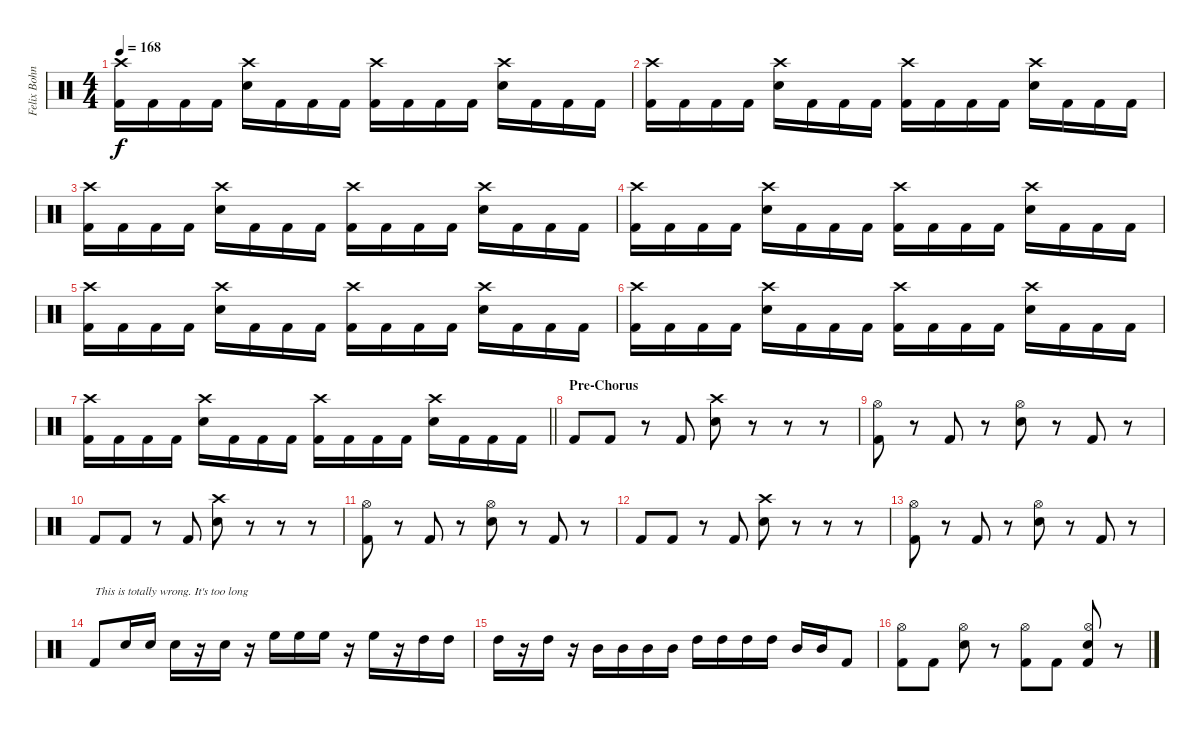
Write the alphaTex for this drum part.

\track ("Felix Bohnke" "Felix Bohn") {instrument percussion}
\staff {score}
\articulation defaults
\ts (4 4)
\tempo 168
\clef neutral
\ks c
("Crash high (hit)" "Kick (hit) 2").16{dy f} "Kick (hit) 2".16 "Kick (hit) 2".16 "Kick (hit) 2".16 ("Crash high (hit)" "Electric Snare (hit)").16 "Kick (hit) 2".16 "Kick (hit) 2".16 "Kick (hit) 2".16 ("Crash high (hit)" "Kick (hit) 2").16 "Kick (hit) 2".16 "Kick (hit) 2".16 "Kick (hit) 2".16 ("Crash high (hit)" "Electric Snare (hit)").16 "Kick (hit) 2".16 "Kick (hit) 2".16 "Kick (hit) 2".16 |
("Crash high (hit)" "Kick (hit) 2").16 "Kick (hit) 2".16 "Kick (hit) 2".16 "Kick (hit) 2".16 ("Crash high (hit)" "Electric Snare (hit)").16 "Kick (hit) 2".16 "Kick (hit) 2".16 "Kick (hit) 2".16 ("Crash high (hit)" "Kick (hit) 2").16 "Kick (hit) 2".16 "Kick (hit) 2".16 "Kick (hit) 2".16 ("Crash high (hit)" "Electric Snare (hit)").16 "Kick (hit) 2".16 "Kick (hit) 2".16 "Kick (hit) 2".16 |
("Crash high (hit)" "Kick (hit) 2").16 "Kick (hit) 2".16 "Kick (hit) 2".16 "Kick (hit) 2".16 ("Crash high (hit)" "Electric Snare (hit)").16 "Kick (hit) 2".16 "Kick (hit) 2".16 "Kick (hit) 2".16 ("Crash high (hit)" "Kick (hit) 2").16 "Kick (hit) 2".16 "Kick (hit) 2".16 "Kick (hit) 2".16 ("Crash high (hit)" "Electric Snare (hit)").16 "Kick (hit) 2".16 "Kick (hit) 2".16 "Kick (hit) 2".16 |
("Crash high (hit)" "Kick (hit) 2").16 "Kick (hit) 2".16 "Kick (hit) 2".16 "Kick (hit) 2".16 ("Crash high (hit)" "Electric Snare (hit)").16 "Kick (hit) 2".16 "Kick (hit) 2".16 "Kick (hit) 2".16 ("Crash high (hit)" "Kick (hit) 2").16 "Kick (hit) 2".16 "Kick (hit) 2".16 "Kick (hit) 2".16 ("Crash high (hit)" "Electric Snare (hit)").16 "Kick (hit) 2".16 "Kick (hit) 2".16 "Kick (hit) 2".16 |
("Crash high (hit)" "Kick (hit) 2").16 "Kick (hit) 2".16 "Kick (hit) 2".16 "Kick (hit) 2".16 ("Crash high (hit)" "Electric Snare (hit)").16 "Kick (hit) 2".16 "Kick (hit) 2".16 "Kick (hit) 2".16 ("Crash high (hit)" "Kick (hit) 2").16 "Kick (hit) 2".16 "Kick (hit) 2".16 "Kick (hit) 2".16 ("Crash high (hit)" "Electric Snare (hit)").16 "Kick (hit) 2".16 "Kick (hit) 2".16 "Kick (hit) 2".16 |
("Crash high (hit)" "Kick (hit) 2").16 "Kick (hit) 2".16 "Kick (hit) 2".16 "Kick (hit) 2".16 ("Crash high (hit)" "Electric Snare (hit)").16 "Kick (hit) 2".16 "Kick (hit) 2".16 "Kick (hit) 2".16 ("Crash high (hit)" "Kick (hit) 2").16 "Kick (hit) 2".16 "Kick (hit) 2".16 "Kick (hit) 2".16 ("Crash high (hit)" "Electric Snare (hit)").16 "Kick (hit) 2".16 "Kick (hit) 2".16 "Kick (hit) 2".16 |
\barLineRight lightlight
("Crash high (hit)" "Kick (hit) 2").16 "Kick (hit) 2".16 "Kick (hit) 2".16 "Kick (hit) 2".16 ("Crash high (hit)" "Electric Snare (hit)").16 "Kick (hit) 2".16 "Kick (hit) 2".16 "Kick (hit) 2".16 ("Crash high (hit)" "Kick (hit) 2").16 "Kick (hit) 2".16 "Kick (hit) 2".16 "Kick (hit) 2".16 ("Crash high (hit)" "Electric Snare (hit)").16 "Kick (hit) 2".16 "Kick (hit) 2".16 "Kick (hit) 2".16 |
\section ("" "Pre-Chorus")
"Kick (hit) 2".8 "Kick (hit) 2".8 r.8 "Kick (hit) 2".8 ("Crash high (hit)" "Electric Snare (hit)").8 r.8 r.8 r.8 |
("Hi-Hat (open)" "Kick (hit) 2").8 r.8 "Kick (hit) 2".8 r.8 ("Hi-Hat (open)" "Electric Snare (hit)").8 r.8 "Kick (hit) 2".8 r.8 |
"Kick (hit) 2".8 "Kick (hit) 2".8 r.8 "Kick (hit) 2".8 ("Crash high (hit)" "Electric Snare (hit)").8 r.8 r.8 r.8 |
("Hi-Hat (open)" "Kick (hit) 2").8 r.8 "Kick (hit) 2".8 r.8 ("Hi-Hat (open)" "Electric Snare (hit)").8 r.8 "Kick (hit) 2".8 r.8 |
"Kick (hit) 2".8 "Kick (hit) 2".8 r.8 "Kick (hit) 2".8 ("Crash high (hit)" "Electric Snare (hit)").8 r.8 r.8 r.8 |
("Hi-Hat (open)" "Kick (hit) 2").8 r.8 "Kick (hit) 2".8 r.8 ("Hi-Hat (open)" "Electric Snare (hit)").8 r.8 "Kick (hit) 2".8 r.8 |
"Kick (hit) 2".8{txt "This is totally wrong. It's too long"} "Electric Snare (hit)".16 "Electric Snare (hit)".16 "Electric Snare (hit)".16 r.16 "Electric Snare (hit)".16 r.16 "High Floor Tom (hit)".16 "High Floor Tom (hit)".16 "High Floor Tom (hit)".16 r.16 "High Floor Tom (hit)".16 r.16 "High Tom (hit)".16 "High Tom (hit)".16 |
"High Tom (hit)".16 r.16 "High Tom (hit)".16 r.16 "Mid Tom (hit)".16 "Mid Tom (hit)".16 "Mid Tom (hit)".16 "Mid Tom (hit)".16 "High Tom (hit)".16 "High Tom (hit)".16 "High Tom (hit)".16 "High Tom (hit)".16 "Mid Tom (hit)".16 "Mid Tom (hit)".16 "Kick (hit) 2".8 |
("Hi-Hat (open)" "Kick (hit) 2").8 "Kick (hit) 2".8 ("Hi-Hat (open)" "Snare (hit) 2").8 r.8 ("Hi-Hat (open)" "Kick (hit) 2").8 "Kick (hit) 2".8 ("Hi-Hat (open)" "Snare (hit) 2" "Kick (hit) 2").8 r.8
